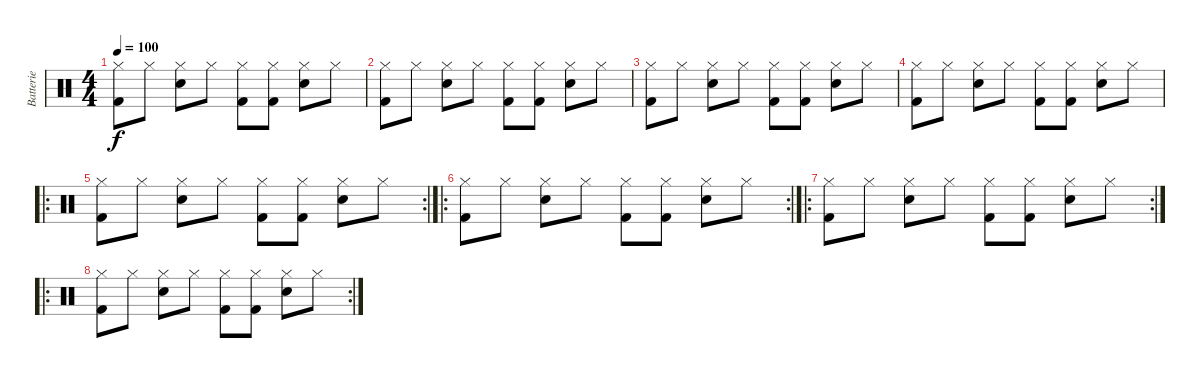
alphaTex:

\track ("Batterie" "Batterie") {instrument percussion}
\staff {score}
\articulation defaults
\ts (4 4)
\tempo 100
\clef neutral
\ks c
("Hi-Hat (closed)" "Kick (hit) 2").8{dy f} "Hi-Hat (closed)".8 ("Hi-Hat (closed)" "Electric Snare (hit)").8 "Hi-Hat (closed)".8 ("Hi-Hat (closed)" "Kick (hit) 2").8 ("Hi-Hat (closed)" "Kick (hit) 2").8 ("Hi-Hat (closed)" "Electric Snare (hit)").8 "Hi-Hat (closed)".8 |
("Hi-Hat (closed)" "Kick (hit) 2").8 "Hi-Hat (closed)".8 ("Hi-Hat (closed)" "Electric Snare (hit)").8 "Hi-Hat (closed)".8 ("Hi-Hat (closed)" "Kick (hit) 2").8 ("Hi-Hat (closed)" "Kick (hit) 2").8 ("Hi-Hat (closed)" "Electric Snare (hit)").8 "Hi-Hat (closed)".8 |
("Hi-Hat (closed)" "Kick (hit) 2").8 "Hi-Hat (closed)".8 ("Hi-Hat (closed)" "Electric Snare (hit)").8 "Hi-Hat (closed)".8 ("Hi-Hat (closed)" "Kick (hit) 2").8 ("Hi-Hat (closed)" "Kick (hit) 2").8 ("Hi-Hat (closed)" "Electric Snare (hit)").8 "Hi-Hat (closed)".8 |
("Hi-Hat (closed)" "Kick (hit) 2").8 "Hi-Hat (closed)".8 ("Hi-Hat (closed)" "Electric Snare (hit)").8 "Hi-Hat (closed)".8 ("Hi-Hat (closed)" "Kick (hit) 2").8 ("Hi-Hat (closed)" "Kick (hit) 2").8 ("Hi-Hat (closed)" "Electric Snare (hit)").8 "Hi-Hat (closed)".8 |
\ro
\rc 2
("Hi-Hat (closed)" "Kick (hit) 2").8 "Hi-Hat (closed)".8 ("Hi-Hat (closed)" "Electric Snare (hit)").8 "Hi-Hat (closed)".8 ("Hi-Hat (closed)" "Kick (hit) 2").8 ("Hi-Hat (closed)" "Kick (hit) 2").8 ("Hi-Hat (closed)" "Electric Snare (hit)").8 "Hi-Hat (closed)".8 |
\ro
\rc 2
("Hi-Hat (closed)" "Kick (hit) 2").8 "Hi-Hat (closed)".8 ("Hi-Hat (closed)" "Electric Snare (hit)").8 "Hi-Hat (closed)".8 ("Hi-Hat (closed)" "Kick (hit) 2").8 ("Hi-Hat (closed)" "Kick (hit) 2").8 ("Hi-Hat (closed)" "Electric Snare (hit)").8 "Hi-Hat (closed)".8 |
\ro
\rc 2
("Hi-Hat (closed)" "Kick (hit) 2").8 "Hi-Hat (closed)".8 ("Hi-Hat (closed)" "Electric Snare (hit)").8 "Hi-Hat (closed)".8 ("Hi-Hat (closed)" "Kick (hit) 2").8 ("Hi-Hat (closed)" "Kick (hit) 2").8 ("Hi-Hat (closed)" "Electric Snare (hit)").8 "Hi-Hat (closed)".8 |
\ro
\rc 2
("Hi-Hat (closed)" "Kick (hit) 2").8 "Hi-Hat (closed)".8 ("Hi-Hat (closed)" "Electric Snare (hit)").8 "Hi-Hat (closed)".8 ("Hi-Hat (closed)" "Kick (hit) 2").8 ("Hi-Hat (closed)" "Kick (hit) 2").8 ("Hi-Hat (closed)" "Electric Snare (hit)").8 "Hi-Hat (closed)".8
